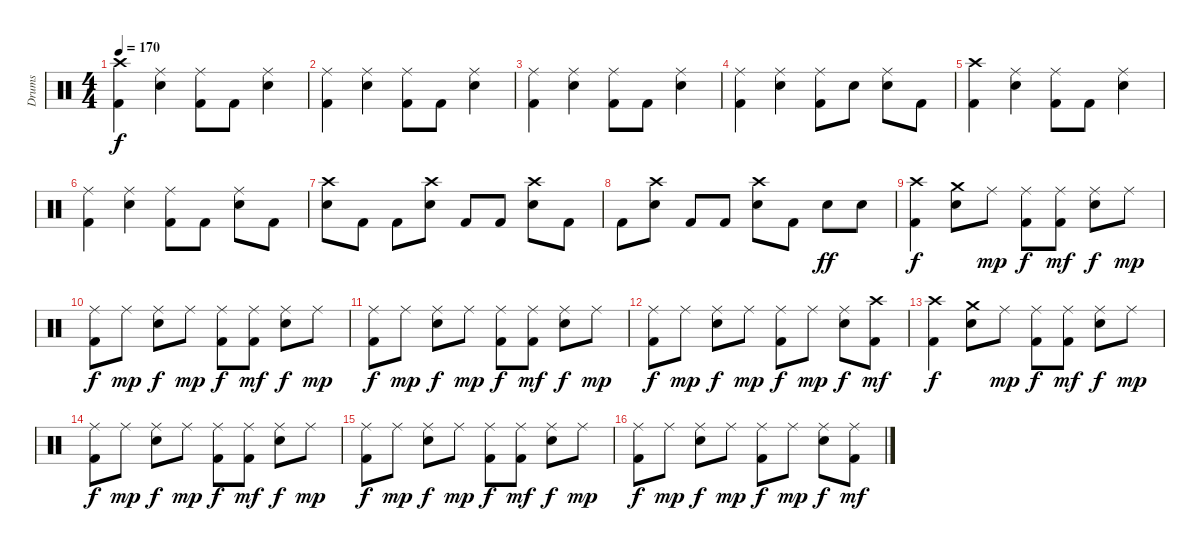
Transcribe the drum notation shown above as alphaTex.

\track ("Drums" "Drums") {instrument percussion}
\staff {score}
\articulation defaults
\ts (4 4)
\tempo 170
\clef neutral
\ks c
("Crash high (hit)" "Kick (hit) 2").4{dy f} ("Ride (middle)" "Snare (hit) 2").4 ("Ride (middle)" "Kick (hit) 2").8 "Kick (hit) 2".8 ("Ride (middle)" "Snare (hit) 2").4 |
("Ride (middle)" "Kick (hit) 2").4 ("Ride (middle)" "Snare (hit) 2").4 ("Ride (middle)" "Kick (hit) 2").8 "Kick (hit) 2".8 ("Ride (middle)" "Snare (hit) 2").4 |
("Ride (middle)" "Kick (hit) 2").4 ("Ride (middle)" "Snare (hit) 2").4 ("Ride (middle)" "Kick (hit) 2").8 "Kick (hit) 2".8 ("Ride (middle)" "Snare (hit) 2").4 |
("Ride (middle)" "Kick (hit) 2").4 ("Ride (middle)" "Snare (hit) 2").4 ("Ride (middle)" "Kick (hit) 2").8 "Snare (hit) 2".8 ("Ride (middle)" "Snare (hit) 2").8 "Kick (hit) 2".8 |
("Crash high (hit)" "Kick (hit) 2").4 ("Ride (middle)" "Snare (hit) 2").4 ("Ride (middle)" "Kick (hit) 2").8 "Kick (hit) 2".8 ("Ride (middle)" "Snare (hit) 2").4 |
("Ride (middle)" "Kick (hit) 2").4 ("Ride (middle)" "Snare (hit) 2").4 ("Ride (middle)" "Kick (hit) 2").8 "Kick (hit) 2".8 ("Ride (middle)" "Snare (hit) 2").8 "Kick (hit) 2".8 |
("Crash high (hit)" "Snare (hit) 2").8 "Kick (hit) 2".8 "Kick (hit) 2".8 ("Crash high (hit)" "Snare (hit) 2").8 "Kick (hit) 2".8 "Kick (hit) 2".8 ("Crash high (hit)" "Snare (hit) 2").8 "Kick (hit) 2".8 |
"Kick (hit) 2".8 ("Crash high (hit)" "Snare (hit) 2").8 "Kick (hit) 2".8 "Kick (hit) 2".8 ("Crash high (hit)" "Snare (hit) 2").8 "Kick (hit) 2".8 "Snare (hit) 2".8{dy ff} "Snare (hit) 2".8 |
("Crash high (hit)" "Kick (hit) 2").4{dy f} ("Crash medium (hit)" "Snare (hit) 2").8 "Ride (middle)".8{dy mp} ("Ride (middle)" "Kick (hit) 2").8{dy f} ("Ride (middle)" "Kick (hit) 2").8{dy mf} ("Ride (middle)" "Snare (hit) 2").8{dy f} "Ride (middle)".8{dy mp} |
("Ride (middle)" "Kick (hit) 2").8{dy f} "Ride (middle)".8{dy mp} ("Ride (middle)" "Snare (hit) 2").8{dy f} "Ride (middle)".8{dy mp} ("Ride (middle)" "Kick (hit) 2").8{dy f} ("Ride (middle)" "Kick (hit) 2").8{dy mf} ("Ride (middle)" "Snare (hit) 2").8{dy f} "Ride (middle)".8{dy mp} |
("Ride (middle)" "Kick (hit) 2").8{dy f} "Ride (middle)".8{dy mp} ("Ride (middle)" "Snare (hit) 2").8{dy f} "Ride (middle)".8{dy mp} ("Ride (middle)" "Kick (hit) 2").8{dy f} ("Ride (middle)" "Kick (hit) 2").8{dy mf} ("Ride (middle)" "Snare (hit) 2").8{dy f} "Ride (middle)".8{dy mp} |
("Ride (middle)" "Kick (hit) 2").8{dy f} "Ride (middle)".8{dy mp} ("Ride (middle)" "Snare (hit) 2").8{dy f} "Ride (middle)".8{dy mp} ("Ride (middle)" "Kick (hit) 2").8{dy f} "Ride (middle)".8{dy mp} ("Ride (middle)" "Snare (hit) 2").8{dy f} ("Crash high (hit)" "Kick (hit) 2").8{dy mf} |
("Crash high (hit)" "Kick (hit) 2").4{dy f} ("Crash medium (hit)" "Snare (hit) 2").8 "Ride (middle)".8{dy mp} ("Ride (middle)" "Kick (hit) 2").8{dy f} ("Ride (middle)" "Kick (hit) 2").8{dy mf} ("Ride (middle)" "Snare (hit) 2").8{dy f} "Ride (middle)".8{dy mp} |
("Ride (middle)" "Kick (hit) 2").8{dy f} "Ride (middle)".8{dy mp} ("Ride (middle)" "Snare (hit) 2").8{dy f} "Ride (middle)".8{dy mp} ("Ride (middle)" "Kick (hit) 2").8{dy f} ("Ride (middle)" "Kick (hit) 2").8{dy mf} ("Ride (middle)" "Snare (hit) 2").8{dy f} "Ride (middle)".8{dy mp} |
("Ride (middle)" "Kick (hit) 2").8{dy f} "Ride (middle)".8{dy mp} ("Ride (middle)" "Snare (hit) 2").8{dy f} "Ride (middle)".8{dy mp} ("Ride (middle)" "Kick (hit) 2").8{dy f} ("Ride (middle)" "Kick (hit) 2").8{dy mf} ("Ride (middle)" "Snare (hit) 2").8{dy f} "Ride (middle)".8{dy mp} |
("Ride (middle)" "Kick (hit) 2").8{dy f} "Ride (middle)".8{dy mp} ("Ride (middle)" "Snare (hit) 2").8{dy f} "Ride (middle)".8{dy mp} ("Ride (middle)" "Kick (hit) 2").8{dy f} "Ride (middle)".8{dy mp} ("Ride (middle)" "Snare (hit) 2").8{dy f} ("Ride (middle)" "Kick (hit) 2").8{dy mf}
